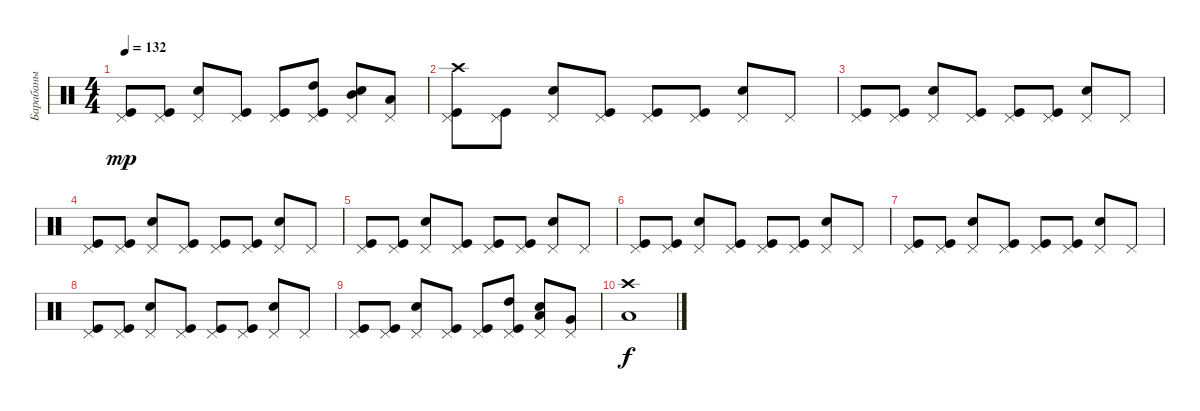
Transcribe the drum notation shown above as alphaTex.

\track ("Барабаны" "Барабаны") {instrument percussion}
\staff {score}
\articulation defaults
\ts (4 4)
\tempo 132
\clef neutral
\ks c
("Kick (hit)" "Pedal Hi-Hat (hit)").8{dy mp} ("Kick (hit)" "Pedal Hi-Hat (hit)").8 ("Snare (hit) 2" "Pedal Hi-Hat (hit)").8 ("Kick (hit)" "Pedal Hi-Hat (hit)").8 ("Kick (hit)" "Pedal Hi-Hat (hit)").8 ("Kick (hit)" "Pedal Hi-Hat (hit)" "High Tom (hit)").8 ("Snare (hit) 2" "Pedal Hi-Hat (hit)" "Mid Tom (hit)").8 ("Pedal Hi-Hat (hit)" "Low Tom (hit)").8 |
("Kick (hit)" "Pedal Hi-Hat (hit)" "Crash high (hit)").8 ("Kick (hit)" "Pedal Hi-Hat (hit)").8 ("Snare (hit) 2" "Pedal Hi-Hat (hit)").8 ("Kick (hit)" "Pedal Hi-Hat (hit)").8 ("Kick (hit)" "Pedal Hi-Hat (hit)").8 ("Kick (hit)" "Pedal Hi-Hat (hit)").8 ("Snare (hit) 2" "Pedal Hi-Hat (hit)").8 "Pedal Hi-Hat (hit)".8 |
("Kick (hit)" "Pedal Hi-Hat (hit)").8 ("Kick (hit)" "Pedal Hi-Hat (hit)").8 ("Snare (hit) 2" "Pedal Hi-Hat (hit)").8 ("Kick (hit)" "Pedal Hi-Hat (hit)").8 ("Kick (hit)" "Pedal Hi-Hat (hit)").8 ("Kick (hit)" "Pedal Hi-Hat (hit)").8 ("Snare (hit) 2" "Pedal Hi-Hat (hit)").8 "Pedal Hi-Hat (hit)".8 |
("Kick (hit)" "Pedal Hi-Hat (hit)").8 ("Kick (hit)" "Pedal Hi-Hat (hit)").8 ("Snare (hit) 2" "Pedal Hi-Hat (hit)").8 ("Kick (hit)" "Pedal Hi-Hat (hit)").8 ("Kick (hit)" "Pedal Hi-Hat (hit)").8 ("Kick (hit)" "Pedal Hi-Hat (hit)").8 ("Snare (hit) 2" "Pedal Hi-Hat (hit)").8 "Pedal Hi-Hat (hit)".8 |
("Kick (hit)" "Pedal Hi-Hat (hit)").8 ("Kick (hit)" "Pedal Hi-Hat (hit)").8 ("Snare (hit) 2" "Pedal Hi-Hat (hit)").8 ("Kick (hit)" "Pedal Hi-Hat (hit)").8 ("Kick (hit)" "Pedal Hi-Hat (hit)").8 ("Kick (hit)" "Pedal Hi-Hat (hit)").8 ("Snare (hit) 2" "Pedal Hi-Hat (hit)").8 "Pedal Hi-Hat (hit)".8 |
("Kick (hit)" "Pedal Hi-Hat (hit)").8 ("Kick (hit)" "Pedal Hi-Hat (hit)").8 ("Snare (hit) 2" "Pedal Hi-Hat (hit)").8 ("Kick (hit)" "Pedal Hi-Hat (hit)").8 ("Kick (hit)" "Pedal Hi-Hat (hit)").8 ("Kick (hit)" "Pedal Hi-Hat (hit)").8 ("Snare (hit) 2" "Pedal Hi-Hat (hit)").8 "Pedal Hi-Hat (hit)".8 |
("Kick (hit)" "Pedal Hi-Hat (hit)").8 ("Kick (hit)" "Pedal Hi-Hat (hit)").8 ("Snare (hit) 2" "Pedal Hi-Hat (hit)").8 ("Kick (hit)" "Pedal Hi-Hat (hit)").8 ("Kick (hit)" "Pedal Hi-Hat (hit)").8 ("Kick (hit)" "Pedal Hi-Hat (hit)").8 ("Snare (hit) 2" "Pedal Hi-Hat (hit)").8 "Pedal Hi-Hat (hit)".8 |
("Kick (hit)" "Pedal Hi-Hat (hit)").8 ("Kick (hit)" "Pedal Hi-Hat (hit)").8 ("Snare (hit) 2" "Pedal Hi-Hat (hit)").8 ("Kick (hit)" "Pedal Hi-Hat (hit)").8 ("Kick (hit)" "Pedal Hi-Hat (hit)").8 ("Kick (hit)" "Pedal Hi-Hat (hit)").8 ("Snare (hit) 2" "Pedal Hi-Hat (hit)").8 "Pedal Hi-Hat (hit)".8 |
("Kick (hit)" "Pedal Hi-Hat (hit)").8 ("Kick (hit)" "Pedal Hi-Hat (hit)").8 ("Snare (hit) 2" "Pedal Hi-Hat (hit)").8 ("Kick (hit)" "Pedal Hi-Hat (hit)").8 ("Kick (hit)" "Pedal Hi-Hat (hit)").8 ("Kick (hit)" "Pedal Hi-Hat (hit)" "High Tom (hit)").8 ("Snare (hit) 2" "Pedal Hi-Hat (hit)" "Low Tom (hit)").8 ("Pedal Hi-Hat (hit)" "Very Low Tom (hit)").8 |
("Crash high (hit)" "Low Floor Tom (hit)").1{dy f}
